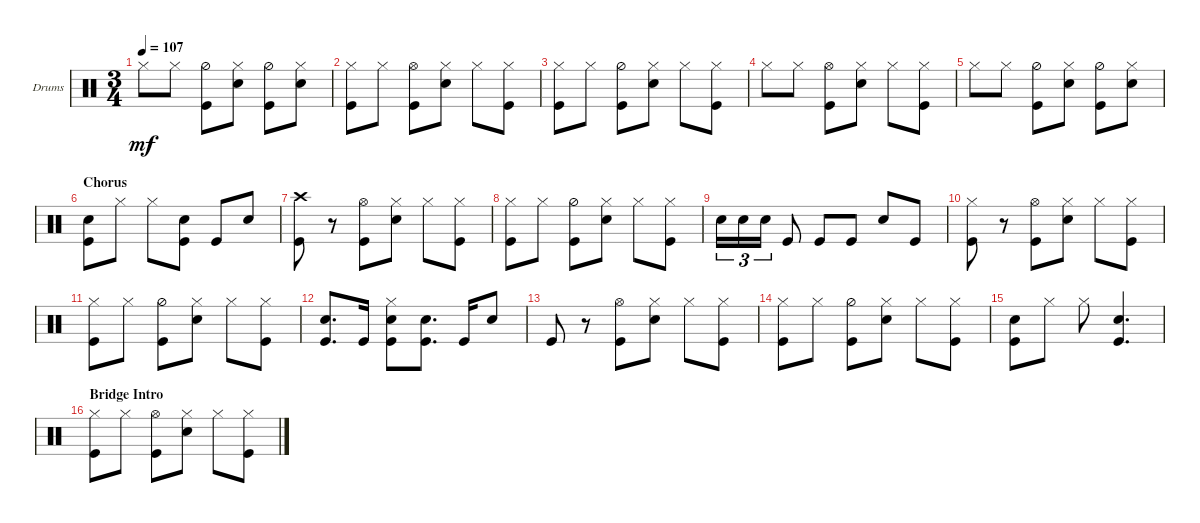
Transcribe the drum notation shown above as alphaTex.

\defaultSystemsLayout 4
\bracketExtendMode groupsimilarinstruments
\firstSystemTrackNameOrientation horizontal
\otherSystemsTrackNameOrientation horizontal
\track ("Drums" "Drums") {instrument percussion}
\staff {score}
\articulation defaults
\ts (3 4)
\tempo 107
\clef neutral
\ks c "Hi-Hat (closed)".8{dy mf} "Hi-Hat (closed)".8
("Hi-Hat (half)" "Kick (hit)").8 ("Hi-Hat (closed)" "Snare (hit) 2").8 ("Hi-Hat (half)" "Kick (hit)").8 ("Hi-Hat (closed)" "Snare (hit) 2").8 |
("Hi-Hat (closed)" "Kick (hit)").8 "Hi-Hat (closed)".8 ("Hi-Hat (open)" "Kick (hit)").8 ("Snare (hit) 2" "Hi-Hat (closed)").8 "Hi-Hat (closed)".8 ("Hi-Hat (closed)" "Kick (hit)").8 |
("Hi-Hat (closed)" "Kick (hit)").8 "Hi-Hat (closed)".8 ("Hi-Hat (half)" "Kick (hit)").8 ("Hi-Hat (closed)" "Snare (hit) 2").8 "Hi-Hat (closed)".8 ("Hi-Hat (closed)" "Kick (hit)").8 |
"Hi-Hat (closed)".8 "Hi-Hat (closed)".8 ("Hi-Hat (open)" "Kick (hit)").8 ("Snare (hit) 2" "Hi-Hat (closed)").8 "Hi-Hat (closed)".8 ("Kick (hit)" "Hi-Hat (closed)").8 |
"Hi-Hat (closed)".8 "Hi-Hat (closed)".8 ("Hi-Hat (half)" "Kick (hit)").8 ("Hi-Hat (closed)" "Snare (hit) 2").8 ("Hi-Hat (half)" "Kick (hit)").8 ("Hi-Hat (closed)" "Snare (hit) 2").8 |
\section ("" "Chorus")
("Kick (hit)" "Snare (hit) 2").8 "Hi-Hat (closed)".8 "Hi-Hat (closed)".8 ("Kick (hit)" "Snare (hit) 2").8 "Kick (hit)".8 "Snare (hit) 2".8 |
("Kick (hit)" "Crash high (hit)").8 r.8 ("Hi-Hat (open)" "Kick (hit)").8 ("Snare (hit) 2" "Hi-Hat (closed)").8 "Hi-Hat (closed)".8 ("Hi-Hat (closed)" "Kick (hit)").8 |
("Hi-Hat (closed)" "Kick (hit)").8 "Hi-Hat (closed)".8 ("Hi-Hat (half)" "Kick (hit)").8 ("Hi-Hat (closed)" "Snare (hit) 2").8 "Hi-Hat (closed)".8 ("Hi-Hat (closed)" "Kick (hit)").8 |
"Snare (hit) 2".16{tu (3 2)} "Snare (hit) 2".16{tu (3 2)} "Snare (hit) 2".16{tu (3 2)} "Kick (hit)".8 "Kick (hit)".8 "Kick (hit)".8 "Snare (hit) 2".8 "Kick (hit)".8 |
("Kick (hit)" "Hi-Hat (closed)").8 r.8 ("Hi-Hat (open)" "Kick (hit)").8 ("Snare (hit) 2" "Hi-Hat (closed)").8 "Hi-Hat (closed)".8 ("Hi-Hat (closed)" "Kick (hit)").8 |
("Hi-Hat (closed)" "Kick (hit)").8 "Hi-Hat (closed)".8 ("Hi-Hat (half)" "Kick (hit)").8 ("Hi-Hat (closed)" "Snare (hit) 2").8 "Hi-Hat (closed)".8 ("Hi-Hat (closed)" "Kick (hit)").8 |
("Kick (hit)" "Snare (hit) 2").8{d} "Kick (hit)".16 ("Hi-Hat (closed)" "Kick (hit)" "Snare (hit) 2").8 ("Kick (hit)" "Snare (hit) 2").8{d} "Kick (hit)".16 "Snare (hit) 2".8 |
"Kick (hit)".8 r.8 ("Hi-Hat (open)" "Kick (hit)").8 ("Snare (hit) 2" "Hi-Hat (closed)").8 "Hi-Hat (closed)".8 ("Hi-Hat (closed)" "Kick (hit)").8 |
("Hi-Hat (closed)" "Kick (hit)").8 "Hi-Hat (closed)".8 ("Hi-Hat (half)" "Kick (hit)").8 ("Hi-Hat (closed)" "Snare (hit) 2").8 "Hi-Hat (closed)".8 ("Hi-Hat (closed)" "Kick (hit)").8 |
("Kick (hit)" "Snare (hit) 2").8 "Hi-Hat (closed)".8 "Hi-Hat (closed)".8 ("Kick (hit)" "Snare (hit) 2").4{d} |
\section ("" "Bridge Intro")
("Hi-Hat (closed)" "Kick (hit)").8 "Hi-Hat (closed)".8 ("Hi-Hat (open)" "Kick (hit)").8 ("Snare (hit) 2" "Hi-Hat (closed)").8 "Hi-Hat (closed)".8 ("Hi-Hat (closed)" "Kick (hit)").8
